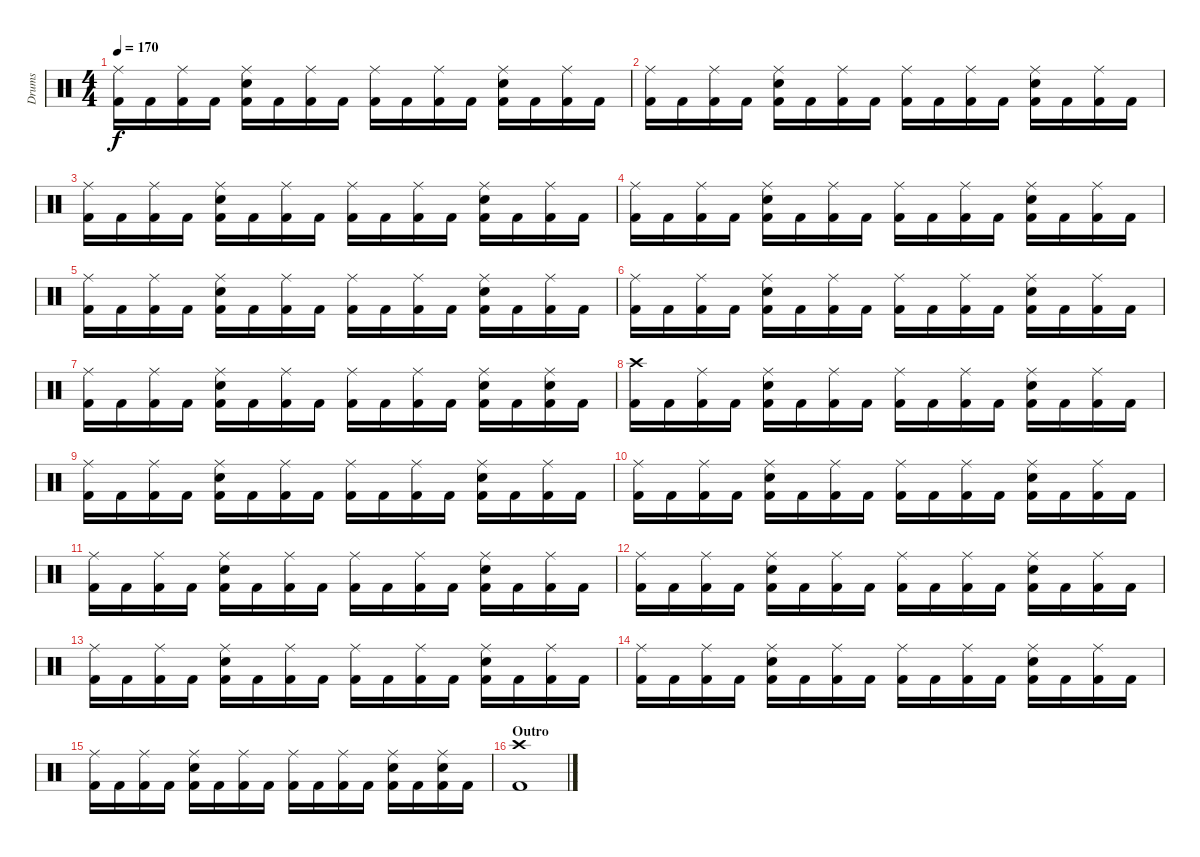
\track ("Drums" "Drums") {instrument percussion}
\staff {score}
\articulation defaults
\ts (4 4)
\tempo 170
\clef neutral
\ks c
("Ride (middle)" "Kick (hit) 2").16{dy f} "Kick (hit) 2".16 ("Ride (middle)" "Kick (hit) 2").16 "Kick (hit) 2".16 ("Ride (middle)" "Electric Snare (hit)" "Kick (hit) 2").16 "Kick (hit) 2".16 ("Ride (middle)" "Kick (hit) 2").16 "Kick (hit) 2".16 ("Ride (middle)" "Kick (hit) 2").16 "Kick (hit) 2".16 ("Ride (middle)" "Kick (hit) 2").16 "Kick (hit) 2".16 ("Ride (middle)" "Electric Snare (hit)" "Kick (hit) 2").16 "Kick (hit) 2".16 ("Ride (middle)" "Kick (hit) 2").16 "Kick (hit) 2".16 |
("Ride (middle)" "Kick (hit) 2").16 "Kick (hit) 2".16 ("Ride (middle)" "Kick (hit) 2").16 "Kick (hit) 2".16 ("Ride (middle)" "Electric Snare (hit)" "Kick (hit) 2").16 "Kick (hit) 2".16 ("Ride (middle)" "Kick (hit) 2").16 "Kick (hit) 2".16 ("Ride (middle)" "Kick (hit) 2").16 "Kick (hit) 2".16 ("Ride (middle)" "Kick (hit) 2").16 "Kick (hit) 2".16 ("Ride (middle)" "Electric Snare (hit)" "Kick (hit) 2").16 "Kick (hit) 2".16 ("Ride (middle)" "Kick (hit) 2").16 "Kick (hit) 2".16 |
("Ride (middle)" "Kick (hit) 2").16 "Kick (hit) 2".16 ("Ride (middle)" "Kick (hit) 2").16 "Kick (hit) 2".16 ("Ride (middle)" "Electric Snare (hit)" "Kick (hit) 2").16 "Kick (hit) 2".16 ("Ride (middle)" "Kick (hit) 2").16 "Kick (hit) 2".16 ("Ride (middle)" "Kick (hit) 2").16 "Kick (hit) 2".16 ("Ride (middle)" "Kick (hit) 2").16 "Kick (hit) 2".16 ("Ride (middle)" "Electric Snare (hit)" "Kick (hit) 2").16 "Kick (hit) 2".16 ("Ride (middle)" "Kick (hit) 2").16 "Kick (hit) 2".16 |
("Ride (middle)" "Kick (hit) 2").16 "Kick (hit) 2".16 ("Ride (middle)" "Kick (hit) 2").16 "Kick (hit) 2".16 ("Ride (middle)" "Electric Snare (hit)" "Kick (hit) 2").16 "Kick (hit) 2".16 ("Ride (middle)" "Kick (hit) 2").16 "Kick (hit) 2".16 ("Ride (middle)" "Kick (hit) 2").16 "Kick (hit) 2".16 ("Ride (middle)" "Kick (hit) 2").16 "Kick (hit) 2".16 ("Ride (middle)" "Electric Snare (hit)" "Kick (hit) 2").16 "Kick (hit) 2".16 ("Ride (middle)" "Kick (hit) 2").16 "Kick (hit) 2".16 |
("Ride (middle)" "Kick (hit) 2").16 "Kick (hit) 2".16 ("Ride (middle)" "Kick (hit) 2").16 "Kick (hit) 2".16 ("Ride (middle)" "Electric Snare (hit)" "Kick (hit) 2").16 "Kick (hit) 2".16 ("Ride (middle)" "Kick (hit) 2").16 "Kick (hit) 2".16 ("Ride (middle)" "Kick (hit) 2").16 "Kick (hit) 2".16 ("Ride (middle)" "Kick (hit) 2").16 "Kick (hit) 2".16 ("Ride (middle)" "Electric Snare (hit)" "Kick (hit) 2").16 "Kick (hit) 2".16 ("Ride (middle)" "Kick (hit) 2").16 "Kick (hit) 2".16 |
("Ride (middle)" "Kick (hit) 2").16 "Kick (hit) 2".16 ("Ride (middle)" "Kick (hit) 2").16 "Kick (hit) 2".16 ("Ride (middle)" "Electric Snare (hit)" "Kick (hit) 2").16 "Kick (hit) 2".16 ("Ride (middle)" "Kick (hit) 2").16 "Kick (hit) 2".16 ("Ride (middle)" "Kick (hit) 2").16 "Kick (hit) 2".16 ("Ride (middle)" "Kick (hit) 2").16 "Kick (hit) 2".16 ("Ride (middle)" "Electric Snare (hit)" "Kick (hit) 2").16 "Kick (hit) 2".16 ("Ride (middle)" "Kick (hit) 2").16 "Kick (hit) 2".16 |
("Ride (middle)" "Kick (hit) 2").16 "Kick (hit) 2".16 ("Ride (middle)" "Kick (hit) 2").16 "Kick (hit) 2".16 ("Ride (middle)" "Electric Snare (hit)" "Kick (hit) 2").16 "Kick (hit) 2".16 ("Ride (middle)" "Kick (hit) 2").16 "Kick (hit) 2".16 ("Ride (middle)" "Kick (hit) 2").16 "Kick (hit) 2".16 ("Ride (middle)" "Kick (hit) 2").16 "Kick (hit) 2".16 ("Ride (middle)" "Electric Snare (hit)" "Kick (hit) 2").16 "Kick (hit) 2".16 ("Ride (middle)" "Electric Snare (hit)" "Kick (hit) 2").16 "Kick (hit) 2".16 |
("Crash high (hit)" "Kick (hit) 2").16 "Kick (hit) 2".16 ("Ride (middle)" "Kick (hit) 2").16 "Kick (hit) 2".16 ("Ride (middle)" "Electric Snare (hit)" "Kick (hit) 2").16 "Kick (hit) 2".16 ("Ride (middle)" "Kick (hit) 2").16 "Kick (hit) 2".16 ("Ride (middle)" "Kick (hit) 2").16 "Kick (hit) 2".16 ("Ride (middle)" "Kick (hit) 2").16 "Kick (hit) 2".16 ("Ride (middle)" "Electric Snare (hit)" "Kick (hit) 2").16 "Kick (hit) 2".16 ("Ride (middle)" "Kick (hit) 2").16 "Kick (hit) 2".16 |
("Ride (middle)" "Kick (hit) 2").16 "Kick (hit) 2".16 ("Ride (middle)" "Kick (hit) 2").16 "Kick (hit) 2".16 ("Ride (middle)" "Electric Snare (hit)" "Kick (hit) 2").16 "Kick (hit) 2".16 ("Ride (middle)" "Kick (hit) 2").16 "Kick (hit) 2".16 ("Ride (middle)" "Kick (hit) 2").16 "Kick (hit) 2".16 ("Ride (middle)" "Kick (hit) 2").16 "Kick (hit) 2".16 ("Ride (middle)" "Electric Snare (hit)" "Kick (hit) 2").16 "Kick (hit) 2".16 ("Ride (middle)" "Kick (hit) 2").16 "Kick (hit) 2".16 |
("Ride (middle)" "Kick (hit) 2").16 "Kick (hit) 2".16 ("Ride (middle)" "Kick (hit) 2").16 "Kick (hit) 2".16 ("Ride (middle)" "Electric Snare (hit)" "Kick (hit) 2").16 "Kick (hit) 2".16 ("Ride (middle)" "Kick (hit) 2").16 "Kick (hit) 2".16 ("Ride (middle)" "Kick (hit) 2").16 "Kick (hit) 2".16 ("Ride (middle)" "Kick (hit) 2").16 "Kick (hit) 2".16 ("Ride (middle)" "Electric Snare (hit)" "Kick (hit) 2").16 "Kick (hit) 2".16 ("Ride (middle)" "Kick (hit) 2").16 "Kick (hit) 2".16 |
("Ride (middle)" "Kick (hit) 2").16 "Kick (hit) 2".16 ("Ride (middle)" "Kick (hit) 2").16 "Kick (hit) 2".16 ("Ride (middle)" "Electric Snare (hit)" "Kick (hit) 2").16 "Kick (hit) 2".16 ("Ride (middle)" "Kick (hit) 2").16 "Kick (hit) 2".16 ("Ride (middle)" "Kick (hit) 2").16 "Kick (hit) 2".16 ("Ride (middle)" "Kick (hit) 2").16 "Kick (hit) 2".16 ("Ride (middle)" "Electric Snare (hit)" "Kick (hit) 2").16 "Kick (hit) 2".16 ("Ride (middle)" "Kick (hit) 2").16 "Kick (hit) 2".16 |
("Ride (middle)" "Kick (hit) 2").16 "Kick (hit) 2".16 ("Ride (middle)" "Kick (hit) 2").16 "Kick (hit) 2".16 ("Ride (middle)" "Electric Snare (hit)" "Kick (hit) 2").16 "Kick (hit) 2".16 ("Ride (middle)" "Kick (hit) 2").16 "Kick (hit) 2".16 ("Ride (middle)" "Kick (hit) 2").16 "Kick (hit) 2".16 ("Ride (middle)" "Kick (hit) 2").16 "Kick (hit) 2".16 ("Ride (middle)" "Electric Snare (hit)" "Kick (hit) 2").16 "Kick (hit) 2".16 ("Ride (middle)" "Kick (hit) 2").16 "Kick (hit) 2".16 |
("Ride (middle)" "Kick (hit) 2").16 "Kick (hit) 2".16 ("Ride (middle)" "Kick (hit) 2").16 "Kick (hit) 2".16 ("Ride (middle)" "Electric Snare (hit)" "Kick (hit) 2").16 "Kick (hit) 2".16 ("Ride (middle)" "Kick (hit) 2").16 "Kick (hit) 2".16 ("Ride (middle)" "Kick (hit) 2").16 "Kick (hit) 2".16 ("Ride (middle)" "Kick (hit) 2").16 "Kick (hit) 2".16 ("Ride (middle)" "Electric Snare (hit)" "Kick (hit) 2").16 "Kick (hit) 2".16 ("Ride (middle)" "Kick (hit) 2").16 "Kick (hit) 2".16 |
("Ride (middle)" "Kick (hit) 2").16 "Kick (hit) 2".16 ("Ride (middle)" "Kick (hit) 2").16 "Kick (hit) 2".16 ("Ride (middle)" "Electric Snare (hit)" "Kick (hit) 2").16 "Kick (hit) 2".16 ("Ride (middle)" "Kick (hit) 2").16 "Kick (hit) 2".16 ("Ride (middle)" "Kick (hit) 2").16 "Kick (hit) 2".16 ("Ride (middle)" "Kick (hit) 2").16 "Kick (hit) 2".16 ("Ride (middle)" "Electric Snare (hit)" "Kick (hit) 2").16 "Kick (hit) 2".16 ("Ride (middle)" "Kick (hit) 2").16 "Kick (hit) 2".16 |
("Ride (middle)" "Kick (hit) 2").16 "Kick (hit) 2".16 ("Ride (middle)" "Kick (hit) 2").16 "Kick (hit) 2".16 ("Ride (middle)" "Electric Snare (hit)" "Kick (hit) 2").16 "Kick (hit) 2".16 ("Ride (middle)" "Kick (hit) 2").16 "Kick (hit) 2".16 ("Ride (middle)" "Kick (hit) 2").16 "Kick (hit) 2".16 ("Ride (middle)" "Kick (hit) 2").16 "Kick (hit) 2".16 ("Ride (middle)" "Electric Snare (hit)" "Kick (hit) 2").16 "Kick (hit) 2".16 ("Ride (middle)" "Electric Snare (hit)" "Kick (hit) 2").16 "Kick (hit) 2".16 |
\section ("" "Outro")
("Crash high (hit)" "Kick (hit) 2").1
